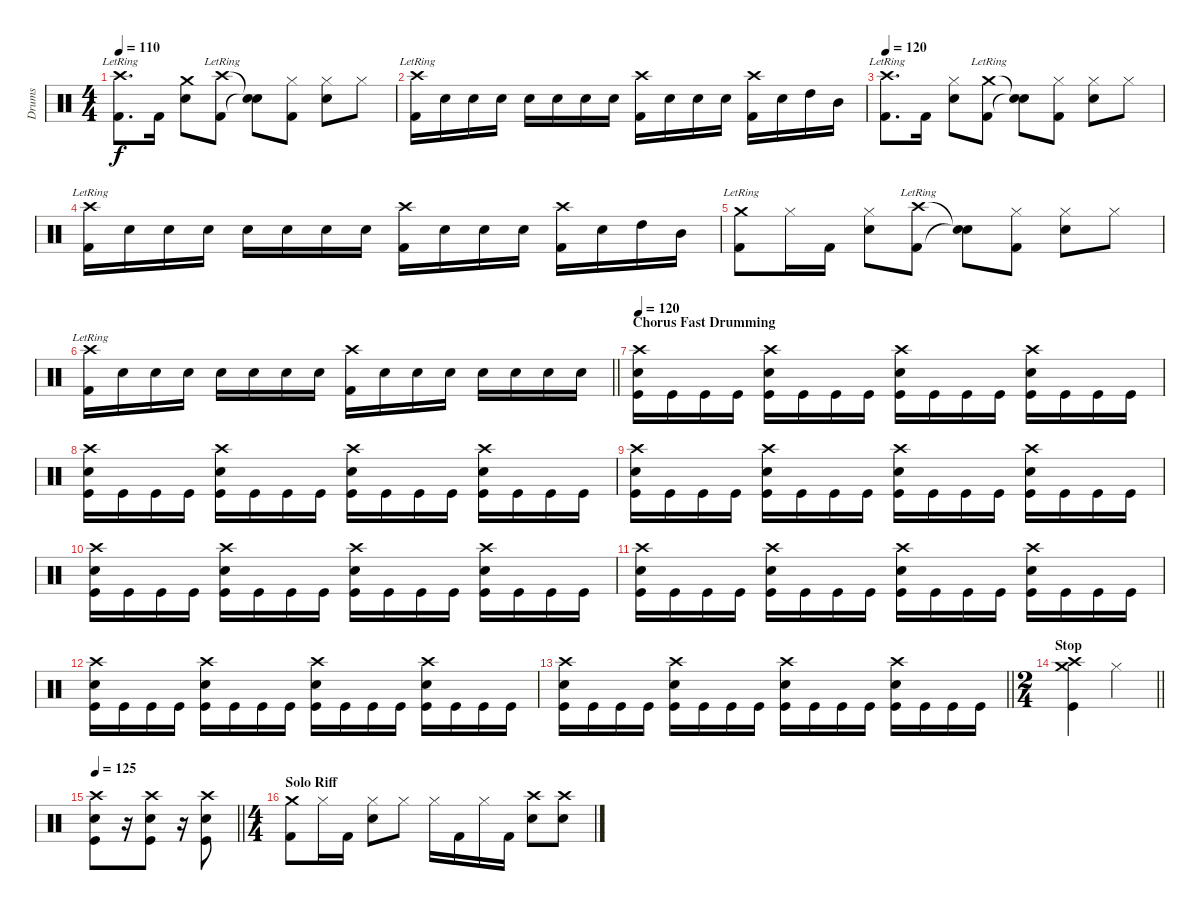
\track ("Drums" "Drums") {instrument percussion}
\staff {score}
\articulation defaults
\ts (4 4)
\tempo 110
\clef neutral
\ks c
("Crash high (hit)"{lr} "Kick (hit) 2").8{d dy f} "Kick (hit) 2".16 ("Crash medium (hit)" "Snare (hit) 2").8 ("Crash high (hit)"{lr} "Kick (hit) 2").8 ("Snare (hit)"{t} "Snare (hit)"{t}).8 ("Hi-Hat (closed)" "Kick (hit) 2").8 ("Hi-Hat (closed)" "Snare (hit) 2").8 "Hi-Hat (closed)".8 |
("Crash high (hit)"{lr} "Kick (hit) 2").16 "Snare (hit) 2".16 "Snare (hit) 2".16 "Snare (hit) 2".16 "Snare (hit) 2".16 "Snare (hit) 2".16 "Snare (hit) 2".16 "Snare (hit) 2".16 ("Crash high (hit)" "Kick (hit) 2").16 "Snare (hit) 2".16 "Snare (hit) 2".16 "Snare (hit) 2".16 ("Crash high (hit)" "Kick (hit) 2").16 "Snare (hit) 2".16 "High Tom (hit)".16 "Mid Tom (hit)".16 |
\tempo 120
("Crash high (hit)"{lr} "Kick (hit) 2").8{d} "Kick (hit) 2".16 ("Hi-Hat (closed)" "Snare (hit) 2").8 ("Crash medium (hit)"{lr} "Kick (hit) 2").8 ("Snare (hit)"{t} "Snare (hit)"{t}).8 ("Hi-Hat (closed)" "Kick (hit) 2").8 ("Hi-Hat (closed)" "Snare (hit) 2").8 "Hi-Hat (closed)".8 |
("Crash high (hit)"{lr} "Kick (hit) 2").16 "Snare (hit) 2".16 "Snare (hit) 2".16 "Snare (hit) 2".16 "Snare (hit) 2".16 "Snare (hit) 2".16 "Snare (hit) 2".16 "Snare (hit) 2".16 ("Crash high (hit)" "Kick (hit) 2").16 "Snare (hit) 2".16 "Snare (hit) 2".16 "Snare (hit) 2".16 ("Crash high (hit)" "Kick (hit) 2").16 "Snare (hit) 2".16 "High Tom (hit)".16 "Mid Tom (hit)".16 |
("Crash medium (hit)"{lr} "Kick (hit) 2").8 "Hi-Hat (closed)".16 "Kick (hit) 2".16 ("Hi-Hat (closed)" "Snare (hit) 2").8 ("Crash high (hit)"{lr} "Kick (hit) 2").8 ("Snare (hit)"{t} "Snare (hit)"{t}).8 ("Hi-Hat (closed)" "Kick (hit) 2").8 ("Hi-Hat (closed)" "Snare (hit) 2").8 "Hi-Hat (closed)".8 |
\barLineRight lightlight
("Crash high (hit)"{lr} "Kick (hit) 2").16 "Snare (hit) 2".16 "Snare (hit) 2".16 "Snare (hit) 2".16 "Snare (hit) 2".16 "Snare (hit) 2".16 "Snare (hit) 2".16 "Snare (hit) 2".16 ("Crash high (hit)" "Kick (hit) 2").16 "Snare (hit) 2".16 "Snare (hit) 2".16 "Snare (hit) 2".16 "Snare (hit) 2".16 "Snare (hit) 2".16 "Snare (hit) 2".16 "Snare (hit) 2".16 |
\section ("" "Chorus Fast Drumming")
\tempo 120
("Crash high (hit)" "Electric Snare (hit)" "Kick (hit)").16 "Kick (hit)".16 "Kick (hit)".16 "Kick (hit)".16 ("Crash high (hit)" "Electric Snare (hit)" "Kick (hit)").16 "Kick (hit)".16 "Kick (hit)".16 "Kick (hit)".16 ("Crash high (hit)" "Electric Snare (hit)" "Kick (hit)").16 "Kick (hit)".16 "Kick (hit)".16 "Kick (hit)".16 ("Crash high (hit)" "Electric Snare (hit)" "Kick (hit)").16 "Kick (hit)".16 "Kick (hit)".16 "Kick (hit)".16 |
("Crash high (hit)" "Electric Snare (hit)" "Kick (hit)").16 "Kick (hit)".16 "Kick (hit)".16 "Kick (hit)".16 ("Crash high (hit)" "Electric Snare (hit)" "Kick (hit)").16 "Kick (hit)".16 "Kick (hit)".16 "Kick (hit)".16 ("Crash high (hit)" "Electric Snare (hit)" "Kick (hit)").16 "Kick (hit)".16 "Kick (hit)".16 "Kick (hit)".16 ("Crash high (hit)" "Electric Snare (hit)" "Kick (hit)").16 "Kick (hit)".16 "Kick (hit)".16 "Kick (hit)".16 |
("Crash high (hit)" "Electric Snare (hit)" "Kick (hit)").16 "Kick (hit)".16 "Kick (hit)".16 "Kick (hit)".16 ("Crash high (hit)" "Electric Snare (hit)" "Kick (hit)").16 "Kick (hit)".16 "Kick (hit)".16 "Kick (hit)".16 ("Crash high (hit)" "Electric Snare (hit)" "Kick (hit)").16 "Kick (hit)".16 "Kick (hit)".16 "Kick (hit)".16 ("Crash high (hit)" "Electric Snare (hit)" "Kick (hit)").16 "Kick (hit)".16 "Kick (hit)".16 "Kick (hit)".16 |
("Crash high (hit)" "Electric Snare (hit)" "Kick (hit)").16 "Kick (hit)".16 "Kick (hit)".16 "Kick (hit)".16 ("Crash high (hit)" "Electric Snare (hit)" "Kick (hit)").16 "Kick (hit)".16 "Kick (hit)".16 "Kick (hit)".16 ("Crash high (hit)" "Electric Snare (hit)" "Kick (hit)").16 "Kick (hit)".16 "Kick (hit)".16 "Kick (hit)".16 ("Crash high (hit)" "Electric Snare (hit)" "Kick (hit)").16 "Kick (hit)".16 "Kick (hit)".16 "Kick (hit)".16 |
("Crash high (hit)" "Electric Snare (hit)" "Kick (hit)").16 "Kick (hit)".16 "Kick (hit)".16 "Kick (hit)".16 ("Crash high (hit)" "Electric Snare (hit)" "Kick (hit)").16 "Kick (hit)".16 "Kick (hit)".16 "Kick (hit)".16 ("Crash high (hit)" "Electric Snare (hit)" "Kick (hit)").16 "Kick (hit)".16 "Kick (hit)".16 "Kick (hit)".16 ("Crash high (hit)" "Electric Snare (hit)" "Kick (hit)").16 "Kick (hit)".16 "Kick (hit)".16 "Kick (hit)".16 |
("Crash high (hit)" "Electric Snare (hit)" "Kick (hit)").16 "Kick (hit)".16 "Kick (hit)".16 "Kick (hit)".16 ("Crash high (hit)" "Electric Snare (hit)" "Kick (hit)").16 "Kick (hit)".16 "Kick (hit)".16 "Kick (hit)".16 ("Crash high (hit)" "Electric Snare (hit)" "Kick (hit)").16 "Kick (hit)".16 "Kick (hit)".16 "Kick (hit)".16 ("Crash high (hit)" "Electric Snare (hit)" "Kick (hit)").16 "Kick (hit)".16 "Kick (hit)".16 "Kick (hit)".16 |
\barLineRight lightlight
("Crash high (hit)" "Electric Snare (hit)" "Kick (hit)").16 "Kick (hit)".16 "Kick (hit)".16 "Kick (hit)".16 ("Crash high (hit)" "Electric Snare (hit)" "Kick (hit)").16 "Kick (hit)".16 "Kick (hit)".16 "Kick (hit)".16 ("Crash high (hit)" "Electric Snare (hit)" "Kick (hit)").16 "Kick (hit)".16 "Kick (hit)".16 "Kick (hit)".16 ("Crash high (hit)" "Electric Snare (hit)" "Kick (hit)").16 "Kick (hit)".16 "Kick (hit)".16 "Kick (hit)".16 |
\ts (2 4)
\section ("" "Stop")
\barLineRight lightlight
("Crash high (hit)" "Crash medium (hit)" "Kick (hit)").4 "Hi-Hat (closed)".4 |
\tempo 125
\barLineRight lightlight
("Crash high (hit)" "Electric Snare (hit)" "Kick (hit)").8 r.16 ("Crash high (hit)" "Electric Snare (hit)" "Kick (hit)").8 r.16 ("Crash high (hit)" "Electric Snare (hit)" "Kick (hit)").8 |
\ts (4 4)
\section ("" "Solo Riff")
("Crash medium (hit)" "Kick (hit) 2").8 "Hi-Hat (closed)".16 "Kick (hit) 2".16 ("Hi-Hat (closed)" "Snare (hit) 2").8 "Hi-Hat (closed)".8 "Hi-Hat (closed)".16 "Kick (hit) 2".16 "Hi-Hat (closed)".16 "Kick (hit) 2".16 ("Crash high (hit)" "Snare (hit) 2").8 ("Crash high (hit)" "Snare (hit) 2").8
